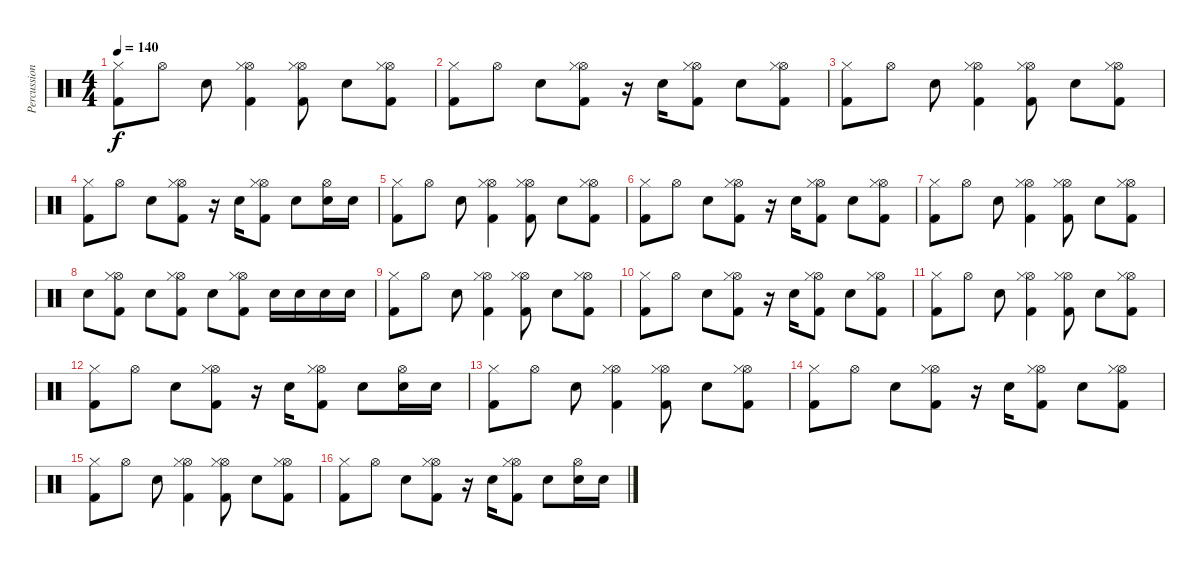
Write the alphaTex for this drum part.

\track ("Percussion" "Percussion") {instrument percussion}
\staff {score}
\articulation defaults
\ts (4 4)
\tempo 140
\clef neutral
\ks c
("Kick (hit) 2" "Hi-Hat (closed)").8{dy f} "Hi-Hat (open)".8 "Snare (hit) 2".8 ("Kick (hit) 2" "Hi-Hat (open)" "Hi-Hat (closed)").4 ("Kick (hit) 2" "Hi-Hat (open)" "Hi-Hat (closed)").8 "Snare (hit) 2".8 ("Kick (hit) 2" "Hi-Hat (open)" "Hi-Hat (closed)").8 |
("Kick (hit) 2" "Hi-Hat (closed)").8 "Hi-Hat (open)".8 "Snare (hit) 2".8 ("Kick (hit) 2" "Hi-Hat (open)" "Hi-Hat (closed)").8 r.16 "Snare (hit) 2".16 ("Kick (hit) 2" "Hi-Hat (open)" "Hi-Hat (closed)").8 "Snare (hit) 2".8 ("Kick (hit) 2" "Hi-Hat (open)" "Hi-Hat (closed)").8 |
("Kick (hit) 2" "Hi-Hat (closed)").8 "Hi-Hat (open)".8 "Snare (hit) 2".8 ("Kick (hit) 2" "Hi-Hat (open)" "Hi-Hat (closed)").4 ("Kick (hit) 2" "Hi-Hat (open)" "Hi-Hat (closed)").8 "Snare (hit) 2".8 ("Kick (hit) 2" "Hi-Hat (open)" "Hi-Hat (closed)").8 |
("Kick (hit) 2" "Hi-Hat (closed)").8 "Hi-Hat (open)".8 "Snare (hit) 2".8 ("Kick (hit) 2" "Hi-Hat (open)" "Hi-Hat (closed)").8 r.16 "Snare (hit) 2".16 ("Kick (hit) 2" "Hi-Hat (open)" "Hi-Hat (closed)").8 "Snare (hit) 2".8 ("Snare (hit) 2" "Hi-Hat (open)").16 "Snare (hit) 2".16 |
("Kick (hit) 2" "Hi-Hat (closed)").8 "Hi-Hat (open)".8 "Snare (hit) 2".8 ("Kick (hit) 2" "Hi-Hat (open)" "Hi-Hat (closed)").4 ("Kick (hit) 2" "Hi-Hat (open)" "Hi-Hat (closed)").8 "Snare (hit) 2".8 ("Kick (hit) 2" "Hi-Hat (open)" "Hi-Hat (closed)").8 |
("Kick (hit) 2" "Hi-Hat (closed)").8 "Hi-Hat (open)".8 "Snare (hit) 2".8 ("Kick (hit) 2" "Hi-Hat (open)" "Hi-Hat (closed)").8 r.16 "Snare (hit) 2".16 ("Kick (hit) 2" "Hi-Hat (open)" "Hi-Hat (closed)").8 "Snare (hit) 2".8 ("Kick (hit) 2" "Hi-Hat (open)" "Hi-Hat (closed)").8 |
("Kick (hit) 2" "Hi-Hat (closed)").8 "Hi-Hat (open)".8 "Snare (hit) 2".8 ("Kick (hit) 2" "Hi-Hat (open)" "Hi-Hat (closed)").4 ("Kick (hit) 2" "Hi-Hat (open)" "Hi-Hat (closed)").8 "Snare (hit) 2".8 ("Kick (hit) 2" "Hi-Hat (open)" "Hi-Hat (closed)").8 |
"Snare (hit) 2".8 ("Kick (hit) 2" "Hi-Hat (open)" "Hi-Hat (closed)").8 "Snare (hit) 2".8 ("Kick (hit) 2" "Hi-Hat (open)" "Hi-Hat (closed)").8 "Snare (hit) 2".8 ("Kick (hit) 2" "Hi-Hat (open)" "Hi-Hat (closed)").8 "Snare (hit) 2".16 "Snare (hit) 2".16 "Snare (hit) 2".16 "Snare (hit) 2".16 |
("Kick (hit) 2" "Hi-Hat (closed)").8 "Hi-Hat (open)".8 "Snare (hit) 2".8 ("Kick (hit) 2" "Hi-Hat (open)" "Hi-Hat (closed)").4 ("Kick (hit) 2" "Hi-Hat (open)" "Hi-Hat (closed)").8 "Snare (hit) 2".8 ("Kick (hit) 2" "Hi-Hat (open)" "Hi-Hat (closed)").8 |
("Kick (hit) 2" "Hi-Hat (closed)").8 "Hi-Hat (open)".8 "Snare (hit) 2".8 ("Kick (hit) 2" "Hi-Hat (open)" "Hi-Hat (closed)").8 r.16 "Snare (hit) 2".16 ("Kick (hit) 2" "Hi-Hat (open)" "Hi-Hat (closed)").8 "Snare (hit) 2".8 ("Kick (hit) 2" "Hi-Hat (open)" "Hi-Hat (closed)").8 |
("Kick (hit) 2" "Hi-Hat (closed)").8 "Hi-Hat (open)".8 "Snare (hit) 2".8 ("Kick (hit) 2" "Hi-Hat (open)" "Hi-Hat (closed)").4 ("Kick (hit) 2" "Hi-Hat (open)" "Hi-Hat (closed)").8 "Snare (hit) 2".8 ("Kick (hit) 2" "Hi-Hat (open)" "Hi-Hat (closed)").8 |
("Kick (hit) 2" "Hi-Hat (closed)").8 "Hi-Hat (open)".8 "Snare (hit) 2".8 ("Kick (hit) 2" "Hi-Hat (open)" "Hi-Hat (closed)").8 r.16 "Snare (hit) 2".16 ("Kick (hit) 2" "Hi-Hat (open)" "Hi-Hat (closed)").8 "Snare (hit) 2".8 ("Snare (hit) 2" "Hi-Hat (open)").16 "Snare (hit) 2".16 |
("Kick (hit) 2" "Hi-Hat (closed)").8 "Hi-Hat (open)".8 "Snare (hit) 2".8 ("Kick (hit) 2" "Hi-Hat (open)" "Hi-Hat (closed)").4 ("Kick (hit) 2" "Hi-Hat (open)" "Hi-Hat (closed)").8 "Snare (hit) 2".8 ("Kick (hit) 2" "Hi-Hat (open)" "Hi-Hat (closed)").8 |
("Kick (hit) 2" "Hi-Hat (closed)").8 "Hi-Hat (open)".8 "Snare (hit) 2".8 ("Kick (hit) 2" "Hi-Hat (open)" "Hi-Hat (closed)").8 r.16 "Snare (hit) 2".16 ("Kick (hit) 2" "Hi-Hat (open)" "Hi-Hat (closed)").8 "Snare (hit) 2".8 ("Kick (hit) 2" "Hi-Hat (open)" "Hi-Hat (closed)").8 |
("Kick (hit) 2" "Hi-Hat (closed)").8 "Hi-Hat (open)".8 "Snare (hit) 2".8 ("Kick (hit) 2" "Hi-Hat (open)" "Hi-Hat (closed)").4 ("Kick (hit) 2" "Hi-Hat (open)" "Hi-Hat (closed)").8 "Snare (hit) 2".8 ("Kick (hit) 2" "Hi-Hat (open)" "Hi-Hat (closed)").8 |
("Kick (hit) 2" "Hi-Hat (closed)").8 "Hi-Hat (open)".8 "Snare (hit) 2".8 ("Kick (hit) 2" "Hi-Hat (open)" "Hi-Hat (closed)").8 r.16 "Snare (hit) 2".16 ("Kick (hit) 2" "Hi-Hat (open)" "Hi-Hat (closed)").8 "Snare (hit) 2".8 ("Snare (hit) 2" "Hi-Hat (open)").16 "Snare (hit) 2".16
